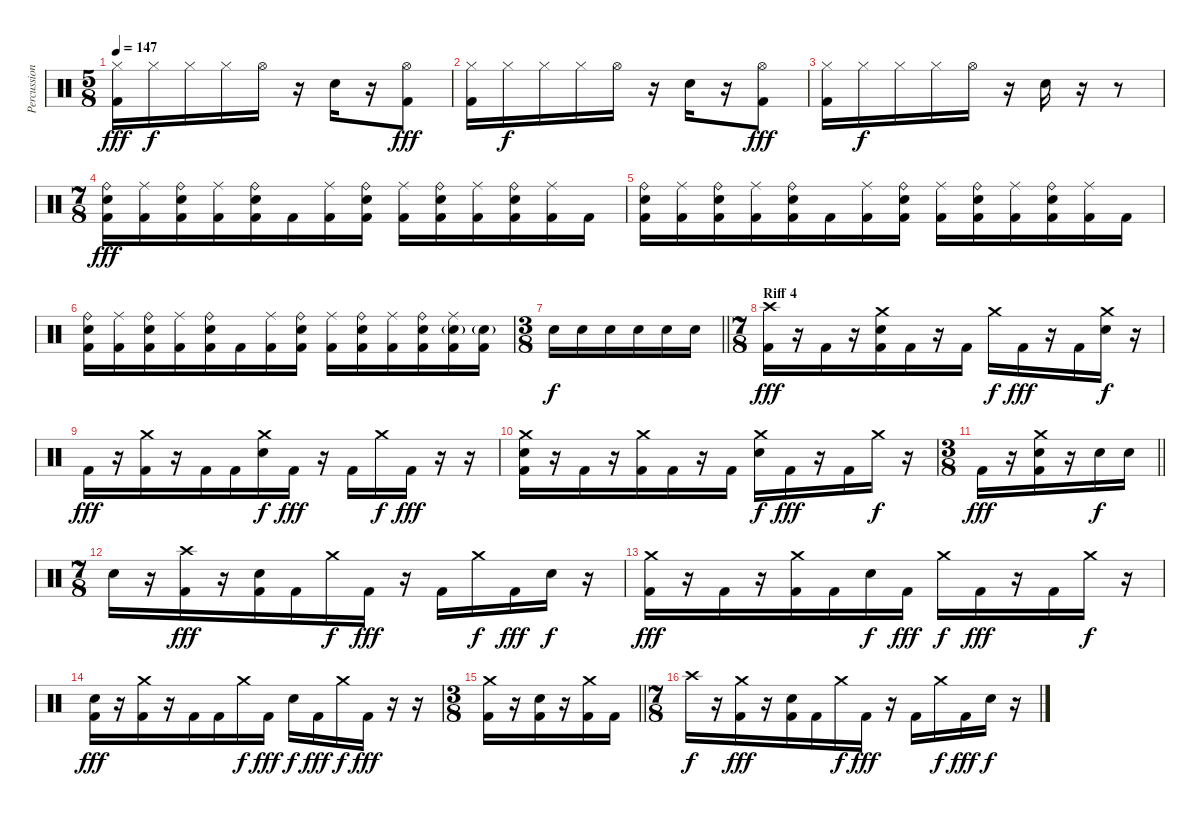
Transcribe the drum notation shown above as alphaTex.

\track ("Percussion" "Percussion") {instrument percussion}
\staff {score}
\articulation defaults
\ts (5 8)
\tempo 147
\clef neutral
\ks c
("Hi-Hat (closed)" "Kick (hit) 2").16{dy fff} "Hi-Hat (closed)".16{dy f} "Hi-Hat (closed)".16 "Hi-Hat (closed)".16 "Hi-Hat (open)".16 r.16 "Electric Snare (hit)".16 r.16 ("Hi-Hat (open)" "Kick (hit) 2").8{dy fff} |
("Hi-Hat (closed)" "Kick (hit) 2").16 "Hi-Hat (closed)".16{dy f} "Hi-Hat (closed)".16 "Hi-Hat (closed)".16 "Hi-Hat (open)".16 r.16 "Electric Snare (hit)".16 r.16 ("Hi-Hat (open)" "Kick (hit) 2").8{dy fff} |
("Hi-Hat (closed)" "Kick (hit) 2").16 "Hi-Hat (closed)".16{dy f} "Hi-Hat (closed)".16 "Hi-Hat (closed)".16 "Hi-Hat (open)".16 r.16 "Electric Snare (hit)".16 r.16 r.8 |
\ts (7 8)
("Ride (bell)" "Electric Snare (hit)" "Kick (hit) 2").16{dy fff} ("Ride (middle)" "Kick (hit) 2").16 ("Ride (bell)" "Electric Snare (hit)" "Kick (hit) 2").16 ("Ride (middle)" "Kick (hit) 2").16 ("Ride (bell)" "Electric Snare (hit)" "Kick (hit) 2").16 "Kick (hit) 2".16 ("Ride (middle)" "Kick (hit) 2").16 ("Ride (bell)" "Electric Snare (hit)" "Kick (hit) 2").16 ("Ride (middle)" "Kick (hit) 2").16 ("Ride (bell)" "Electric Snare (hit)" "Kick (hit) 2").16 ("Ride (middle)" "Kick (hit) 2").16 ("Ride (bell)" "Electric Snare (hit)" "Kick (hit) 2").16 ("Ride (middle)" "Kick (hit) 2").16 "Kick (hit) 2".16 |
("Ride (bell)" "Electric Snare (hit)" "Kick (hit) 2").16 ("Ride (middle)" "Kick (hit) 2").16 ("Ride (bell)" "Electric Snare (hit)" "Kick (hit) 2").16 ("Ride (middle)" "Kick (hit) 2").16 ("Ride (bell)" "Electric Snare (hit)" "Kick (hit) 2").16 "Kick (hit) 2".16 ("Ride (middle)" "Kick (hit) 2").16 ("Ride (bell)" "Electric Snare (hit)" "Kick (hit) 2").16 ("Ride (middle)" "Kick (hit) 2").16 ("Ride (bell)" "Electric Snare (hit)" "Kick (hit) 2").16 ("Ride (middle)" "Kick (hit) 2").16 ("Ride (bell)" "Electric Snare (hit)" "Kick (hit) 2").16 ("Ride (middle)" "Kick (hit) 2").16 "Kick (hit) 2".16 |
("Ride (bell)" "Electric Snare (hit)" "Kick (hit) 2").16 ("Ride (middle)" "Kick (hit) 2").16 ("Ride (bell)" "Electric Snare (hit)" "Kick (hit) 2").16 ("Ride (middle)" "Kick (hit) 2").16 ("Ride (bell)" "Electric Snare (hit)" "Kick (hit) 2").16 "Kick (hit) 2".16 ("Ride (middle)" "Kick (hit) 2").16 ("Ride (bell)" "Electric Snare (hit)" "Kick (hit) 2").16 ("Ride (middle)" "Kick (hit) 2").16 ("Ride (bell)" "Electric Snare (hit)" "Kick (hit) 2").16 ("Ride (middle)" "Kick (hit) 2").16 ("Ride (bell)" "Electric Snare (hit)" "Kick (hit) 2").16 ("Ride (middle)" "Electric Snare (hit)"{g} "Kick (hit) 2").16 ("Electric Snare (hit)"{g} "Kick (hit) 2").16 |
\ts (3 8)
\barLineRight lightlight "Electric Snare (hit)".16{dy f} "Electric Snare (hit)".16 "Electric Snare (hit)".16 "Electric Snare (hit)".16 "Electric Snare (hit)".16 "Electric Snare (hit)".16
|
\ts (7 8)
\section ("" "Riff 4")
("Crash high (hit)" "Kick (hit) 2").16{dy fff} r.16 "Kick (hit) 2".16 r.16 ("Crash medium (hit)" "Electric Snare (hit)" "Kick (hit) 2").16 "Kick (hit) 2".16 r.16 "Kick (hit) 2".16 "Crash medium (hit)".16{dy f} "Kick (hit) 2".16{dy fff} r.16 "Kick (hit) 2".16 ("Crash medium (hit)" "Electric Snare (hit)").16{dy f} r.16 |
"Kick (hit) 2".16{dy fff} r.16 ("Crash medium (hit)" "Kick (hit) 2").16 r.16 "Kick (hit) 2".16 "Kick (hit) 2".16 ("Crash medium (hit)" "Electric Snare (hit)").16{dy f} "Kick (hit) 2".16{dy fff} r.16 "Kick (hit) 2".16 "Crash medium (hit)".16{dy f} "Kick (hit) 2".16{dy fff} r.16 r.16 |
("Crash medium (hit)" "Electric Snare (hit)" "Kick (hit) 2").16 r.16 "Kick (hit) 2".16 r.16 ("Crash medium (hit)" "Kick (hit) 2").16 "Kick (hit) 2".16 r.16 "Kick (hit) 2".16 ("Crash medium (hit)" "Electric Snare (hit)").16{dy f} "Kick (hit) 2".16{dy fff} r.16 "Kick (hit) 2".16 "Crash medium (hit)".16{dy f} r.16 |
\ts (3 8)
\barLineRight lightlight "Kick (hit) 2".16{dy fff}
r.16 ("Crash medium (hit)" "Electric Snare (hit)" "Kick (hit) 2").16 r.16 "Electric Snare (hit)".16{dy f} "Electric Snare (hit)".16 |
\ts (7 8)
"Electric Snare (hit)".16 r.16 ("Crash high (hit)" "Kick (hit) 2").16{dy fff} r.16 ("Electric Snare (hit)" "Kick (hit) 2").16 "Kick (hit) 2".16 "Crash medium (hit)".16{dy f} "Kick (hit) 2".16{dy fff} r.16 "Kick (hit) 2".16 "Crash medium (hit)".16{dy f} "Kick (hit) 2".16{dy fff} "Electric Snare (hit)".16{dy f} r.16 |
("Crash medium (hit)" "Kick (hit) 2").16{dy fff} r.16 "Kick (hit) 2".16 r.16 ("Crash medium (hit)" "Kick (hit) 2").16 "Kick (hit) 2".16 "Electric Snare (hit)".16{dy f} "Kick (hit) 2".16{dy fff} "Crash medium (hit)".16{dy f} "Kick (hit) 2".16{dy fff} r.16 "Kick (hit) 2".16 "Crash medium (hit)".16{dy f} r.16 |
("Electric Snare (hit)" "Kick (hit) 2").16{dy fff} r.16 ("Crash medium (hit)" "Kick (hit) 2").16 r.16 "Kick (hit) 2".16 "Kick (hit) 2".16 "Crash medium (hit)".16{dy f} "Kick (hit) 2".16{dy fff} "Electric Snare (hit)".16{dy f} "Kick (hit) 2".16{dy fff} "Crash medium (hit)".16{dy f} "Kick (hit) 2".16{dy fff} r.16 r.16 |
\ts (3 8)
\barLineRight lightlight
("Crash medium (hit)" "Kick (hit) 2").16 r.16 ("Electric Snare (hit)" "Kick (hit) 2").16 r.16 ("Crash medium (hit)" "Kick (hit) 2").16 "Kick (hit) 2".16 |
\ts (7 8)
"Crash high (hit)".16{dy f} r.16 ("Crash medium (hit)" "Kick (hit) 2").16{dy fff} r.16 ("Electric Snare (hit)" "Kick (hit) 2").16 "Kick (hit) 2".16 "Crash medium (hit)".16{dy f} "Kick (hit) 2".16{dy fff} r.16 "Kick (hit) 2".16 "Crash medium (hit)".16{dy f} "Kick (hit) 2".16{dy fff} "Electric Snare (hit)".16{dy f} r.16
